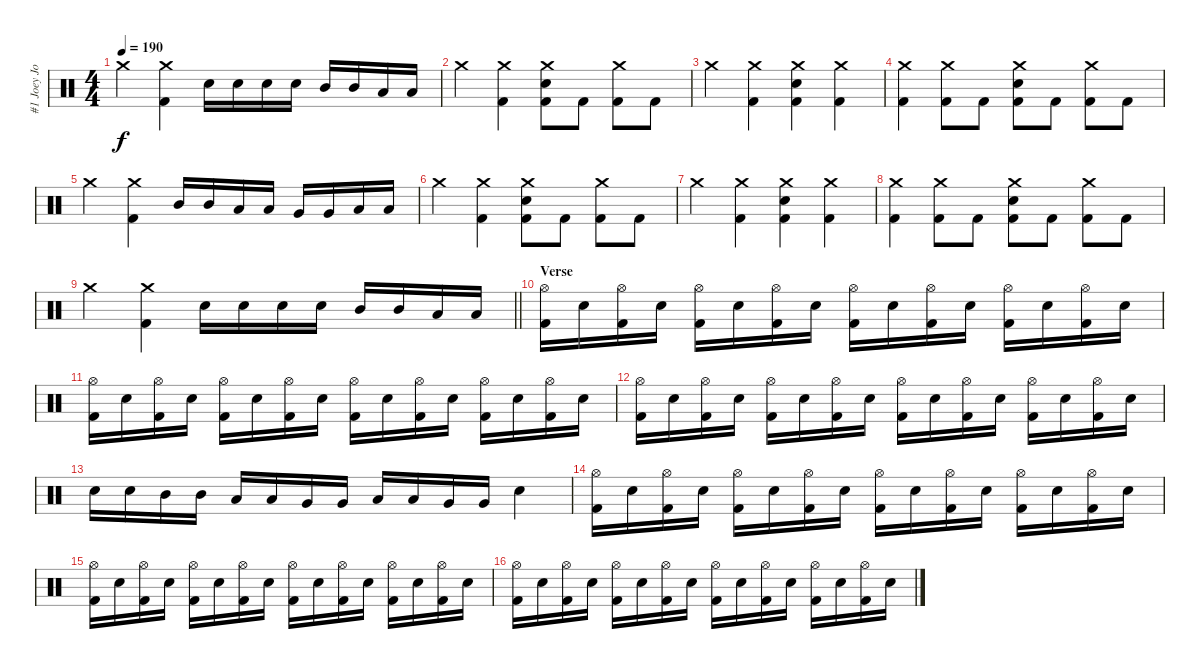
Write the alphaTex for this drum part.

\track ("#1 Joey Jordison" "#1 Joey Jo") {instrument percussion}
\staff {score}
\articulation defaults
\ts (4 4)
\tempo 190
\clef neutral
\ks c "Crash medium (hit)".4{dy f}
("Crash medium (hit)" "Kick (hit) 2").4 "Electric Snare (hit)".16 "Electric Snare (hit)".16 "Electric Snare (hit)".16 "Electric Snare (hit)".16 "Mid Tom (hit)".16 "Mid Tom (hit)".16 "Low Tom (hit)".16 "Low Tom (hit)".16 |
"Crash medium (hit)".4 ("Crash medium (hit)" "Kick (hit) 2").4 ("Crash medium (hit)" "Electric Snare (hit)" "Kick (hit) 2").8 "Kick (hit) 2".8 ("Crash medium (hit)" "Kick (hit) 2").8 "Kick (hit) 2".8 |
"Crash medium (hit)".4 ("Crash medium (hit)" "Kick (hit) 2").4 ("Crash medium (hit)" "Electric Snare (hit)" "Kick (hit) 2").4 ("Crash medium (hit)" "Kick (hit) 2").4 |
("Crash medium (hit)" "Kick (hit) 2").4 ("Crash medium (hit)" "Kick (hit) 2").8 "Kick (hit) 2".8 ("Crash medium (hit)" "Electric Snare (hit)" "Kick (hit) 2").8 "Kick (hit) 2".8 ("Crash medium (hit)" "Kick (hit) 2").8 "Kick (hit) 2".8 |
"Crash medium (hit)".4 ("Crash medium (hit)" "Kick (hit) 2").4 "Mid Tom (hit)".16 "Mid Tom (hit)".16 "Low Tom (hit)".16 "Low Tom (hit)".16 "Very Low Tom (hit)".16 "Very Low Tom (hit)".16 "Low Floor Tom (hit)".16 "Low Floor Tom (hit)".16 |
"Crash medium (hit)".4 ("Crash medium (hit)" "Kick (hit) 2").4 ("Crash medium (hit)" "Electric Snare (hit)" "Kick (hit) 2").8 "Kick (hit) 2".8 ("Crash medium (hit)" "Kick (hit) 2").8 "Kick (hit) 2".8 |
"Crash medium (hit)".4 ("Crash medium (hit)" "Kick (hit) 2").4 ("Crash medium (hit)" "Electric Snare (hit)" "Kick (hit) 2").4 ("Crash medium (hit)" "Kick (hit) 2").4 |
("Crash medium (hit)" "Kick (hit) 2").4 ("Crash medium (hit)" "Kick (hit) 2").8 "Kick (hit) 2".8 ("Crash medium (hit)" "Electric Snare (hit)" "Kick (hit) 2").8 "Kick (hit) 2".8 ("Crash medium (hit)" "Kick (hit) 2").8 "Kick (hit) 2".8 |
\barLineRight lightlight "Crash medium (hit)".4
("Crash medium (hit)" "Kick (hit) 2").4 "Electric Snare (hit)".16 "Electric Snare (hit)".16 "Electric Snare (hit)".16 "Electric Snare (hit)".16 "Mid Tom (hit)".16 "Mid Tom (hit)".16 "Low Tom (hit)".16 "Low Tom (hit)".16 |
\section ("" "Verse")
("Hi-Hat (open)" "Kick (hit) 2").16 "Electric Snare (hit)".16 ("Hi-Hat (open)" "Kick (hit) 2").16 "Electric Snare (hit)".16 ("Hi-Hat (open)" "Kick (hit) 2").16 "Electric Snare (hit)".16 ("Hi-Hat (open)" "Kick (hit) 2").16 "Electric Snare (hit)".16 ("Hi-Hat (open)" "Kick (hit) 2").16 "Electric Snare (hit)".16 ("Hi-Hat (open)" "Kick (hit) 2").16 "Electric Snare (hit)".16 ("Hi-Hat (open)" "Kick (hit) 2").16 "Electric Snare (hit)".16 ("Hi-Hat (open)" "Kick (hit) 2").16 "Electric Snare (hit)".16 |
("Hi-Hat (open)" "Kick (hit) 2").16 "Electric Snare (hit)".16 ("Hi-Hat (open)" "Kick (hit) 2").16 "Electric Snare (hit)".16 ("Hi-Hat (open)" "Kick (hit) 2").16 "Electric Snare (hit)".16 ("Hi-Hat (open)" "Kick (hit) 2").16 "Electric Snare (hit)".16 ("Hi-Hat (open)" "Kick (hit) 2").16 "Electric Snare (hit)".16 ("Hi-Hat (open)" "Kick (hit) 2").16 "Electric Snare (hit)".16 ("Hi-Hat (open)" "Kick (hit) 2").16 "Electric Snare (hit)".16 ("Hi-Hat (open)" "Kick (hit) 2").16 "Electric Snare (hit)".16 |
("Hi-Hat (open)" "Kick (hit) 2").16 "Electric Snare (hit)".16 ("Hi-Hat (open)" "Kick (hit) 2").16 "Electric Snare (hit)".16 ("Hi-Hat (open)" "Kick (hit) 2").16 "Electric Snare (hit)".16 ("Hi-Hat (open)" "Kick (hit) 2").16 "Electric Snare (hit)".16 ("Hi-Hat (open)" "Kick (hit) 2").16 "Electric Snare (hit)".16 ("Hi-Hat (open)" "Kick (hit) 2").16 "Electric Snare (hit)".16 ("Hi-Hat (open)" "Kick (hit) 2").16 "Electric Snare (hit)".16 ("Hi-Hat (open)" "Kick (hit) 2").16 "Electric Snare (hit)".16 |
"Electric Snare (hit)".16 "Electric Snare (hit)".16 "Mid Tom (hit)".16 "Mid Tom (hit)".16 "Low Tom (hit)".16 "Low Tom (hit)".16 "Very Low Tom (hit)".16 "Very Low Tom (hit)".16 "Low Floor Tom (hit)".16 "Low Floor Tom (hit)".16 "Very Low Tom (hit)".16 "Very Low Tom (hit)".16 "Electric Snare (hit)".4 |
("Hi-Hat (open)" "Kick (hit) 2").16 "Electric Snare (hit)".16 ("Hi-Hat (open)" "Kick (hit) 2").16 "Electric Snare (hit)".16 ("Hi-Hat (open)" "Kick (hit) 2").16 "Electric Snare (hit)".16 ("Hi-Hat (open)" "Kick (hit) 2").16 "Electric Snare (hit)".16 ("Hi-Hat (open)" "Kick (hit) 2").16 "Electric Snare (hit)".16 ("Hi-Hat (open)" "Kick (hit) 2").16 "Electric Snare (hit)".16 ("Hi-Hat (open)" "Kick (hit) 2").16 "Electric Snare (hit)".16 ("Hi-Hat (open)" "Kick (hit) 2").16 "Electric Snare (hit)".16 |
("Hi-Hat (open)" "Kick (hit) 2").16 "Electric Snare (hit)".16 ("Hi-Hat (open)" "Kick (hit) 2").16 "Electric Snare (hit)".16 ("Hi-Hat (open)" "Kick (hit) 2").16 "Electric Snare (hit)".16 ("Hi-Hat (open)" "Kick (hit) 2").16 "Electric Snare (hit)".16 ("Hi-Hat (open)" "Kick (hit) 2").16 "Electric Snare (hit)".16 ("Hi-Hat (open)" "Kick (hit) 2").16 "Electric Snare (hit)".16 ("Hi-Hat (open)" "Kick (hit) 2").16 "Electric Snare (hit)".16 ("Hi-Hat (open)" "Kick (hit) 2").16 "Electric Snare (hit)".16 |
("Hi-Hat (open)" "Kick (hit) 2").16 "Electric Snare (hit)".16 ("Hi-Hat (open)" "Kick (hit) 2").16 "Electric Snare (hit)".16 ("Hi-Hat (open)" "Kick (hit) 2").16 "Electric Snare (hit)".16 ("Hi-Hat (open)" "Kick (hit) 2").16 "Electric Snare (hit)".16 ("Hi-Hat (open)" "Kick (hit) 2").16 "Electric Snare (hit)".16 ("Hi-Hat (open)" "Kick (hit) 2").16 "Electric Snare (hit)".16 ("Hi-Hat (open)" "Kick (hit) 2").16 "Electric Snare (hit)".16 ("Hi-Hat (open)" "Kick (hit) 2").16 "Electric Snare (hit)".16
